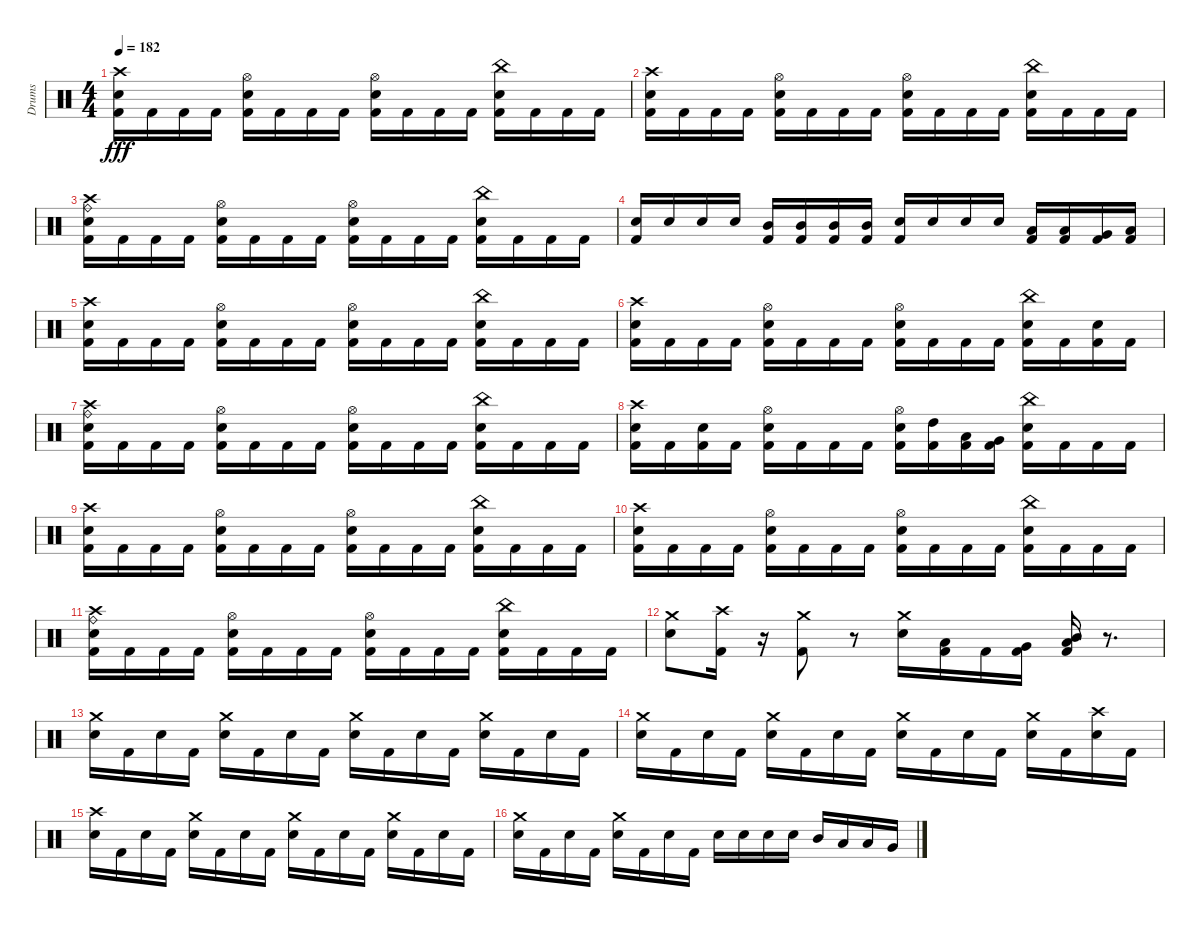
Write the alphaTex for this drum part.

\track ("Drums" "Drums") {instrument percussion}
\staff {score}
\articulation defaults
\ts (4 4)
\tempo 182
\clef neutral
\ks c
("Crash high (hit)" "Kick (hit) 2" "Snare (hit) 2").16{dy fff} "Kick (hit) 2".16 "Kick (hit) 2".16 "Kick (hit) 2".16 ("Hi-Hat (open)" "Kick (hit) 2" "Snare (hit) 2").16 "Kick (hit) 2".16 "Kick (hit) 2".16 "Kick (hit) 2".16 ("Hi-Hat (open)" "Kick (hit) 2" "Snare (hit) 2").16 "Kick (hit) 2".16 "Kick (hit) 2".16 "Kick (hit) 2".16 ("China (hit)" "Kick (hit) 2" "Snare (hit) 2").16 "Kick (hit) 2".16 "Kick (hit) 2".16 "Kick (hit) 2".16 |
("Crash high (hit)" "Kick (hit) 2" "Snare (hit) 2").16 "Kick (hit) 2".16 "Kick (hit) 2".16 "Kick (hit) 2".16 ("Hi-Hat (open)" "Kick (hit) 2" "Snare (hit) 2").16 "Kick (hit) 2".16 "Kick (hit) 2".16 "Kick (hit) 2".16 ("Hi-Hat (open)" "Kick (hit) 2" "Snare (hit) 2").16 "Kick (hit) 2".16 "Kick (hit) 2".16 "Kick (hit) 2".16 ("China (hit)" "Kick (hit) 2" "Snare (hit) 2").16 "Kick (hit) 2".16 "Kick (hit) 2".16 "Kick (hit) 2".16 |
("Crash high (hit)" "Kick (hit) 2" "Snare (hit) 2" "Ride (bell)").16 "Kick (hit) 2".16 "Kick (hit) 2".16 "Kick (hit) 2".16 ("Hi-Hat (open)" "Kick (hit) 2" "Snare (hit) 2").16 "Kick (hit) 2".16 "Kick (hit) 2".16 "Kick (hit) 2".16 ("Hi-Hat (open)" "Kick (hit) 2" "Snare (hit) 2").16 "Kick (hit) 2".16 "Kick (hit) 2".16 "Kick (hit) 2".16 ("China (hit)" "Kick (hit) 2" "Snare (hit) 2").16 "Kick (hit) 2".16 "Kick (hit) 2".16 "Kick (hit) 2".16 |
("Kick (hit) 2" "Snare (hit) 2").16 "Snare (hit) 2".16 "Snare (hit) 2".16 "Snare (hit) 2".16 ("Kick (hit) 2" "Mid Tom (hit)").16 ("Kick (hit) 2" "Mid Tom (hit)").16 ("Kick (hit) 2" "Mid Tom (hit)").16 ("Kick (hit) 2" "Mid Tom (hit)").16 ("Kick (hit) 2" "Snare (hit) 2").16 "Snare (hit) 2".16 "Snare (hit) 2".16 "Snare (hit) 2".16 ("Kick (hit) 2" "Low Tom (hit)").16 ("Kick (hit) 2" "Low Tom (hit)").16 ("Kick (hit) 2" "Very Low Tom (hit)").16 ("Kick (hit) 2" "Low Floor Tom (hit)").16 |
("Crash high (hit)" "Kick (hit) 2" "Snare (hit) 2").16 "Kick (hit) 2".16 "Kick (hit) 2".16 "Kick (hit) 2".16 ("Hi-Hat (open)" "Kick (hit) 2" "Snare (hit) 2").16 "Kick (hit) 2".16 "Kick (hit) 2".16 "Kick (hit) 2".16 ("Hi-Hat (open)" "Kick (hit) 2" "Snare (hit) 2").16 "Kick (hit) 2".16 "Kick (hit) 2".16 "Kick (hit) 2".16 ("China (hit)" "Kick (hit) 2" "Snare (hit) 2").16 "Kick (hit) 2".16 "Kick (hit) 2".16 "Kick (hit) 2".16 |
("Crash high (hit)" "Kick (hit) 2" "Snare (hit) 2").16 "Kick (hit) 2".16 "Kick (hit) 2".16 "Kick (hit) 2".16 ("Hi-Hat (open)" "Kick (hit) 2" "Snare (hit) 2").16 "Kick (hit) 2".16 "Kick (hit) 2".16 "Kick (hit) 2".16 ("Hi-Hat (open)" "Kick (hit) 2" "Snare (hit) 2").16 "Kick (hit) 2".16 "Kick (hit) 2".16 "Kick (hit) 2".16 ("China (hit)" "Kick (hit) 2" "Snare (hit) 2").16 "Kick (hit) 2".16 ("Kick (hit) 2" "Snare (hit) 2").16 "Kick (hit) 2".16 |
("Crash high (hit)" "Kick (hit) 2" "Snare (hit) 2" "Ride (bell)").16 "Kick (hit) 2".16 "Kick (hit) 2".16 "Kick (hit) 2".16 ("Hi-Hat (open)" "Kick (hit) 2" "Snare (hit) 2").16 "Kick (hit) 2".16 "Kick (hit) 2".16 "Kick (hit) 2".16 ("Hi-Hat (open)" "Kick (hit) 2" "Snare (hit) 2").16 "Kick (hit) 2".16 "Kick (hit) 2".16 "Kick (hit) 2".16 ("China (hit)" "Kick (hit) 2" "Snare (hit) 2").16 "Kick (hit) 2".16 "Kick (hit) 2".16 "Kick (hit) 2".16 |
("Crash high (hit)" "Kick (hit) 2" "Snare (hit) 2").16 "Kick (hit) 2".16 ("Kick (hit) 2" "Snare (hit) 2").16 "Kick (hit) 2".16 ("Hi-Hat (open)" "Kick (hit) 2" "Snare (hit) 2").16 "Kick (hit) 2".16 "Kick (hit) 2".16 "Kick (hit) 2".16 ("Hi-Hat (open)" "Kick (hit) 2" "Snare (hit) 2").16 ("Kick (hit) 2" "High Tom (hit)").16 ("Kick (hit) 2" "Low Tom (hit)").16 ("Kick (hit) 2" "Very Low Tom (hit)").16 ("China (hit)" "Kick (hit) 2" "Snare (hit) 2").16 "Kick (hit) 2".16 "Kick (hit) 2".16 "Kick (hit) 2".16 |
("Crash high (hit)" "Kick (hit) 2" "Snare (hit) 2").16 "Kick (hit) 2".16 "Kick (hit) 2".16 "Kick (hit) 2".16 ("Hi-Hat (open)" "Kick (hit) 2" "Snare (hit) 2").16 "Kick (hit) 2".16 "Kick (hit) 2".16 "Kick (hit) 2".16 ("Hi-Hat (open)" "Kick (hit) 2" "Snare (hit) 2").16 "Kick (hit) 2".16 "Kick (hit) 2".16 "Kick (hit) 2".16 ("China (hit)" "Kick (hit) 2" "Snare (hit) 2").16 "Kick (hit) 2".16 "Kick (hit) 2".16 "Kick (hit) 2".16 |
("Crash high (hit)" "Kick (hit) 2" "Snare (hit) 2").16 "Kick (hit) 2".16 "Kick (hit) 2".16 "Kick (hit) 2".16 ("Hi-Hat (open)" "Kick (hit) 2" "Snare (hit) 2").16 "Kick (hit) 2".16 "Kick (hit) 2".16 "Kick (hit) 2".16 ("Hi-Hat (open)" "Kick (hit) 2" "Snare (hit) 2").16 "Kick (hit) 2".16 "Kick (hit) 2".16 "Kick (hit) 2".16 ("China (hit)" "Kick (hit) 2" "Snare (hit) 2").16 "Kick (hit) 2".16 "Kick (hit) 2".16 "Kick (hit) 2".16 |
("Crash high (hit)" "Kick (hit) 2" "Snare (hit) 2" "Ride (bell)").16 "Kick (hit) 2".16 "Kick (hit) 2".16 "Kick (hit) 2".16 ("Hi-Hat (open)" "Kick (hit) 2" "Snare (hit) 2").16 "Kick (hit) 2".16 "Kick (hit) 2".16 "Kick (hit) 2".16 ("Hi-Hat (open)" "Kick (hit) 2" "Snare (hit) 2").16 "Kick (hit) 2".16 "Kick (hit) 2".16 "Kick (hit) 2".16 ("China (hit)" "Kick (hit) 2" "Snare (hit) 2").16 "Kick (hit) 2".16 "Kick (hit) 2".16 "Kick (hit) 2".16 |
("Crash medium (hit)" "Snare (hit) 2").8 ("Crash high (hit)" "Kick (hit) 2").16 r.16 ("Crash medium (hit)" "Kick (hit) 2").8 r.8 ("Crash medium (hit)" "Snare (hit) 2").16 ("Kick (hit) 2" "Low Tom (hit)").16 "Kick (hit) 2".16 ("Kick (hit) 2" "Very Low Tom (hit)").16 ("Kick (hit) 2" "Low Floor Tom (hit)" "Mid Tom (hit)").16 r.8{d} |
("Crash medium (hit)" "Snare (hit) 2").16 "Kick (hit) 2".16 "Snare (hit) 2".16 "Kick (hit) 2".16 ("Crash medium (hit)" "Snare (hit) 2").16 "Kick (hit) 2".16 "Snare (hit) 2".16 "Kick (hit) 2".16 ("Crash medium (hit)" "Snare (hit) 2").16 "Kick (hit) 2".16 "Snare (hit) 2".16 "Kick (hit) 2".16 ("Crash medium (hit)" "Snare (hit) 2").16 "Kick (hit) 2".16 "Snare (hit) 2".16 "Kick (hit) 2".16 |
("Crash medium (hit)" "Snare (hit) 2").16 "Kick (hit) 2".16 "Snare (hit) 2".16 "Kick (hit) 2".16 ("Crash medium (hit)" "Snare (hit) 2").16 "Kick (hit) 2".16 "Snare (hit) 2".16 "Kick (hit) 2".16 ("Crash medium (hit)" "Snare (hit) 2").16 "Kick (hit) 2".16 "Snare (hit) 2".16 "Kick (hit) 2".16 ("Crash medium (hit)" "Snare (hit) 2").16 "Kick (hit) 2".16 ("Crash high (hit)" "Snare (hit) 2").16 "Kick (hit) 2".16 |
("Crash high (hit)" "Snare (hit) 2").16 "Kick (hit) 2".16 "Snare (hit) 2".16 "Kick (hit) 2".16 ("Crash medium (hit)" "Snare (hit) 2").16 "Kick (hit) 2".16 "Snare (hit) 2".16 "Kick (hit) 2".16 ("Crash medium (hit)" "Snare (hit) 2").16 "Kick (hit) 2".16 "Snare (hit) 2".16 "Kick (hit) 2".16 ("Crash medium (hit)" "Snare (hit) 2").16 "Kick (hit) 2".16 "Snare (hit) 2".16 "Kick (hit) 2".16 |
("Crash medium (hit)" "Snare (hit) 2").16 "Kick (hit) 2".16 "Snare (hit) 2".16 "Kick (hit) 2".16 ("Crash medium (hit)" "Snare (hit) 2").16 "Kick (hit) 2".16 "Snare (hit) 2".16 "Kick (hit) 2".16 "Snare (hit) 2".16 "Snare (hit) 2".16 "Snare (hit) 2".16 "Snare (hit) 2".16 "Mid Tom (hit)".16 "Low Tom (hit)".16 "Low Tom (hit)".16 "Very Low Tom (hit)".16
